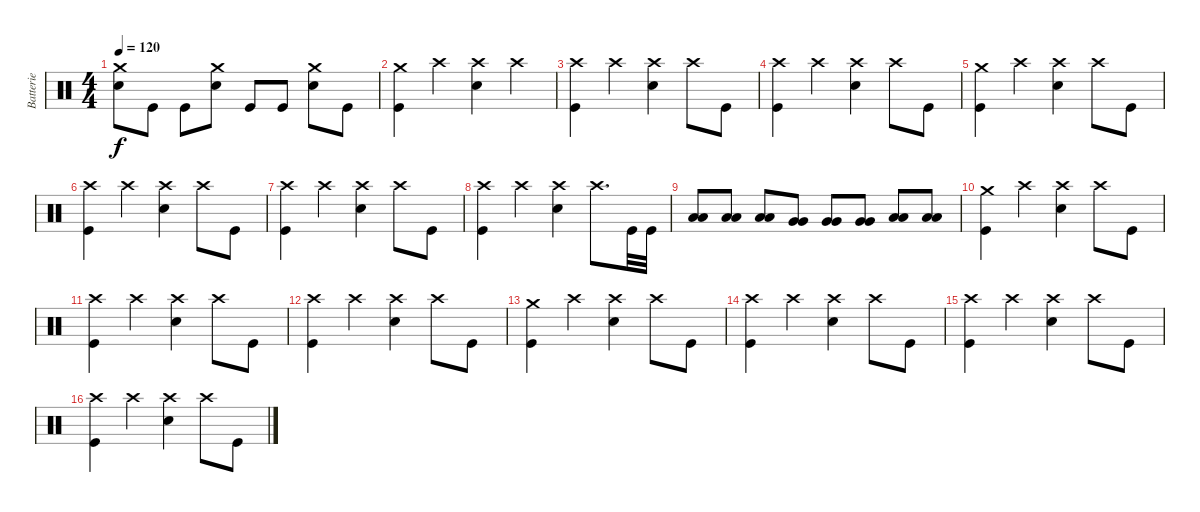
\track ("Batterie" "Batterie") {instrument percussion}
\staff {score}
\articulation defaults
\ts (4 4)
\tempo 120
\clef neutral
\ks c
("Crash medium (hit)" "Electric Snare (hit)").8{dy f} "Kick (hit)".8 "Kick (hit)".8 ("Crash medium (hit)" "Electric Snare (hit)").8 "Kick (hit)".8 "Kick (hit)".8 ("Crash medium (hit)" "Electric Snare (hit)").8 "Kick (hit)".8 |
("Crash medium (hit)" "Kick (hit)").4 "Crash high (hit)".4 ("Crash high (hit)" "Electric Snare (hit)").4 "Crash high (hit)".4 |
("Crash high (hit)" "Kick (hit)").4 "Crash high (hit)".4 ("Crash high (hit)" "Electric Snare (hit)").4 "Crash high (hit)".8 "Kick (hit)".8 |
("Crash high (hit)" "Kick (hit)").4 "Crash high (hit)".4 ("Crash high (hit)" "Electric Snare (hit)").4 "Crash high (hit)".8 "Kick (hit)".8 |
("Crash medium (hit)" "Kick (hit)").4 "Crash high (hit)".4 ("Crash high (hit)" "Electric Snare (hit)").4 "Crash high (hit)".8 "Kick (hit)".8 |
("Crash high (hit)" "Kick (hit)").4 "Crash high (hit)".4 ("Crash high (hit)" "Electric Snare (hit)").4 "Crash high (hit)".8 "Kick (hit)".8 |
("Crash high (hit)" "Kick (hit)").4 "Crash high (hit)".4 ("Crash high (hit)" "Electric Snare (hit)").4 "Crash high (hit)".8 "Kick (hit)".8 |
("Crash high (hit)" "Kick (hit)").4 "Crash high (hit)".4 ("Crash high (hit)" "Electric Snare (hit)").4 "Crash high (hit)".8{d} "Kick (hit)".32 "Kick (hit)".32 |
("Low Tom (hit)" "Low Tom (hit)").8{bd 30} ("Low Tom (hit)" "Low Tom (hit)").8{bd 30} ("Low Tom (hit)" "Low Tom (hit)").8{bd 30} ("Very Low Tom (hit)" "Very Low Tom (hit)").8{bd 30} ("Very Low Tom (hit)" "Very Low Tom (hit)").8{bd 30} ("Very Low Tom (hit)" "Very Low Tom (hit)").8{bd 30} ("Low Floor Tom (hit)" "Low Floor Tom (hit)").8{bd 30} ("Low Floor Tom (hit)" "Low Floor Tom (hit)").8{bd 30} |
("Crash medium (hit)" "Kick (hit)").4 "Crash high (hit)".4 ("Crash high (hit)" "Electric Snare (hit)").4 "Crash high (hit)".8 "Kick (hit)".8 |
("Crash high (hit)" "Kick (hit)").4 "Crash high (hit)".4 ("Crash high (hit)" "Electric Snare (hit)").4 "Crash high (hit)".8 "Kick (hit)".8 |
("Crash high (hit)" "Kick (hit)").4 "Crash high (hit)".4 ("Crash high (hit)" "Electric Snare (hit)").4 "Crash high (hit)".8 "Kick (hit)".8 |
("Crash medium (hit)" "Kick (hit)").4 "Crash high (hit)".4 ("Crash high (hit)" "Electric Snare (hit)").4 "Crash high (hit)".8 "Kick (hit)".8 |
("Crash high (hit)" "Kick (hit)").4 "Crash high (hit)".4 ("Crash high (hit)" "Electric Snare (hit)").4 "Crash high (hit)".8 "Kick (hit)".8 |
("Crash high (hit)" "Kick (hit)").4 "Crash high (hit)".4 ("Crash high (hit)" "Electric Snare (hit)").4 "Crash high (hit)".8 "Kick (hit)".8 |
("Crash high (hit)" "Kick (hit)").4 "Crash high (hit)".4 ("Crash high (hit)" "Electric Snare (hit)").4 "Crash high (hit)".8 "Kick (hit)".8
